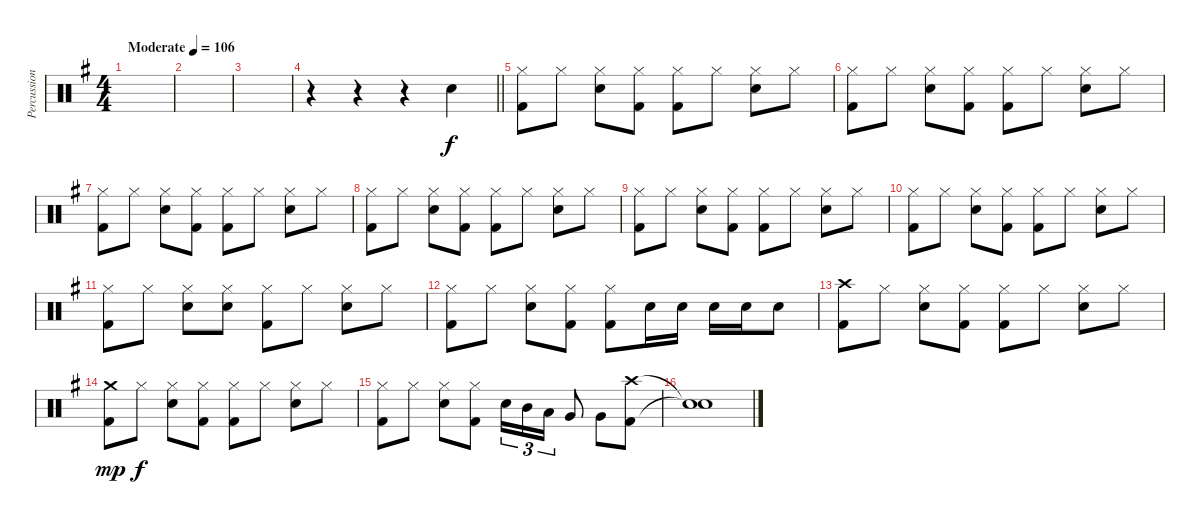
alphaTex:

\track ("Percussion" "Percussion") {instrument percussion}
\staff {score}
\articulation defaults
\ts (4 4)
\tempo (106 "Moderate")
\clef neutral
\ks g
|
|
|
\barLineRight lightlight
r.4 r.4 r.4 "Snare (hit) 2".4 |
("Hi-Hat (closed)" "Kick (hit) 2").8 "Hi-Hat (closed)".8 ("Hi-Hat (closed)" "Snare (hit) 2").8 ("Hi-Hat (closed)" "Kick (hit) 2").8 ("Hi-Hat (closed)" "Kick (hit) 2").8 "Hi-Hat (closed)".8 ("Hi-Hat (closed)" "Snare (hit) 2").8 "Hi-Hat (closed)".8 |
("Hi-Hat (closed)" "Kick (hit) 2").8 "Hi-Hat (closed)".8 ("Hi-Hat (closed)" "Snare (hit) 2").8 ("Hi-Hat (closed)" "Kick (hit) 2").8 ("Hi-Hat (closed)" "Kick (hit) 2").8 "Hi-Hat (closed)".8 ("Hi-Hat (closed)" "Snare (hit) 2").8 "Hi-Hat (closed)".8 |
("Hi-Hat (closed)" "Kick (hit) 2").8 "Hi-Hat (closed)".8 ("Hi-Hat (closed)" "Snare (hit) 2").8 ("Hi-Hat (closed)" "Kick (hit) 2").8 ("Hi-Hat (closed)" "Kick (hit) 2").8 "Hi-Hat (closed)".8 ("Hi-Hat (closed)" "Snare (hit) 2").8 "Hi-Hat (closed)".8 |
("Hi-Hat (closed)" "Kick (hit) 2").8 "Hi-Hat (closed)".8 ("Hi-Hat (closed)" "Snare (hit) 2").8 ("Hi-Hat (closed)" "Kick (hit) 2").8 ("Hi-Hat (closed)" "Kick (hit) 2").8 "Hi-Hat (closed)".8 ("Hi-Hat (closed)" "Snare (hit) 2").8 "Hi-Hat (closed)".8 |
("Hi-Hat (closed)" "Kick (hit) 2").8 "Hi-Hat (closed)".8 ("Hi-Hat (closed)" "Snare (hit) 2").8 ("Hi-Hat (closed)" "Kick (hit) 2").8 ("Hi-Hat (closed)" "Kick (hit) 2").8 "Hi-Hat (closed)".8 ("Hi-Hat (closed)" "Snare (hit) 2").8 "Hi-Hat (closed)".8 |
("Hi-Hat (closed)" "Kick (hit) 2").8 "Hi-Hat (closed)".8 ("Hi-Hat (closed)" "Snare (hit) 2").8 ("Hi-Hat (closed)" "Kick (hit) 2").8 ("Hi-Hat (closed)" "Kick (hit) 2").8 "Hi-Hat (closed)".8 ("Hi-Hat (closed)" "Snare (hit) 2").8 "Hi-Hat (closed)".8 |
("Hi-Hat (closed)" "Kick (hit) 2").8 "Hi-Hat (closed)".8 ("Hi-Hat (closed)" "Snare (hit) 2").8 ("Hi-Hat (closed)" "Snare (hit) 2").8 ("Hi-Hat (closed)" "Kick (hit) 2").8 "Hi-Hat (closed)".8 ("Hi-Hat (closed)" "Snare (hit) 2").8 "Hi-Hat (closed)".8 |
("Hi-Hat (closed)" "Kick (hit) 2").8 "Hi-Hat (closed)".8 ("Hi-Hat (closed)" "Snare (hit) 2").8 ("Hi-Hat (closed)" "Kick (hit) 2").8 ("Hi-Hat (closed)" "Kick (hit) 2").8 "Snare (hit) 2".16 "Snare (hit) 2".16 "Snare (hit) 2".16 "Snare (hit) 2".16 "Snare (hit) 2".8 |
("Crash high (hit)" "Kick (hit) 2").8 "Hi-Hat (closed)".8 ("Hi-Hat (closed)" "Snare (hit) 2").8 ("Hi-Hat (closed)" "Kick (hit) 2").8 ("Hi-Hat (closed)" "Kick (hit) 2").8 "Hi-Hat (closed)".8 ("Hi-Hat (closed)" "Snare (hit) 2").8 "Hi-Hat (closed)".8 |
("Crash medium (hit)" "Kick (hit) 2").8{dy mp} "Hi-Hat (closed)".8{dy f} ("Hi-Hat (closed)" "Snare (hit) 2").8 ("Hi-Hat (closed)" "Kick (hit) 2").8 ("Hi-Hat (closed)" "Kick (hit) 2").8 "Hi-Hat (closed)".8 ("Hi-Hat (closed)" "Snare (hit) 2").8 "Hi-Hat (closed)".8 |
("Hi-Hat (closed)" "Kick (hit) 2").8 "Hi-Hat (closed)".8 ("Hi-Hat (closed)" "Snare (hit) 2").8 ("Hi-Hat (closed)" "Kick (hit) 2").8 "Snare (hit) 2".16{tu (3 2)} "Mid Tom (hit)".16{tu (3 2)} "Low Tom (hit)".16{tu (3 2)} "Very Low Tom (hit)".8 "Very Low Tom (hit)".8 ("Crash high (hit)" "Kick (hit) 2").8 |
("Snare (hit)"{t} "Snare (hit)"{t}).1
